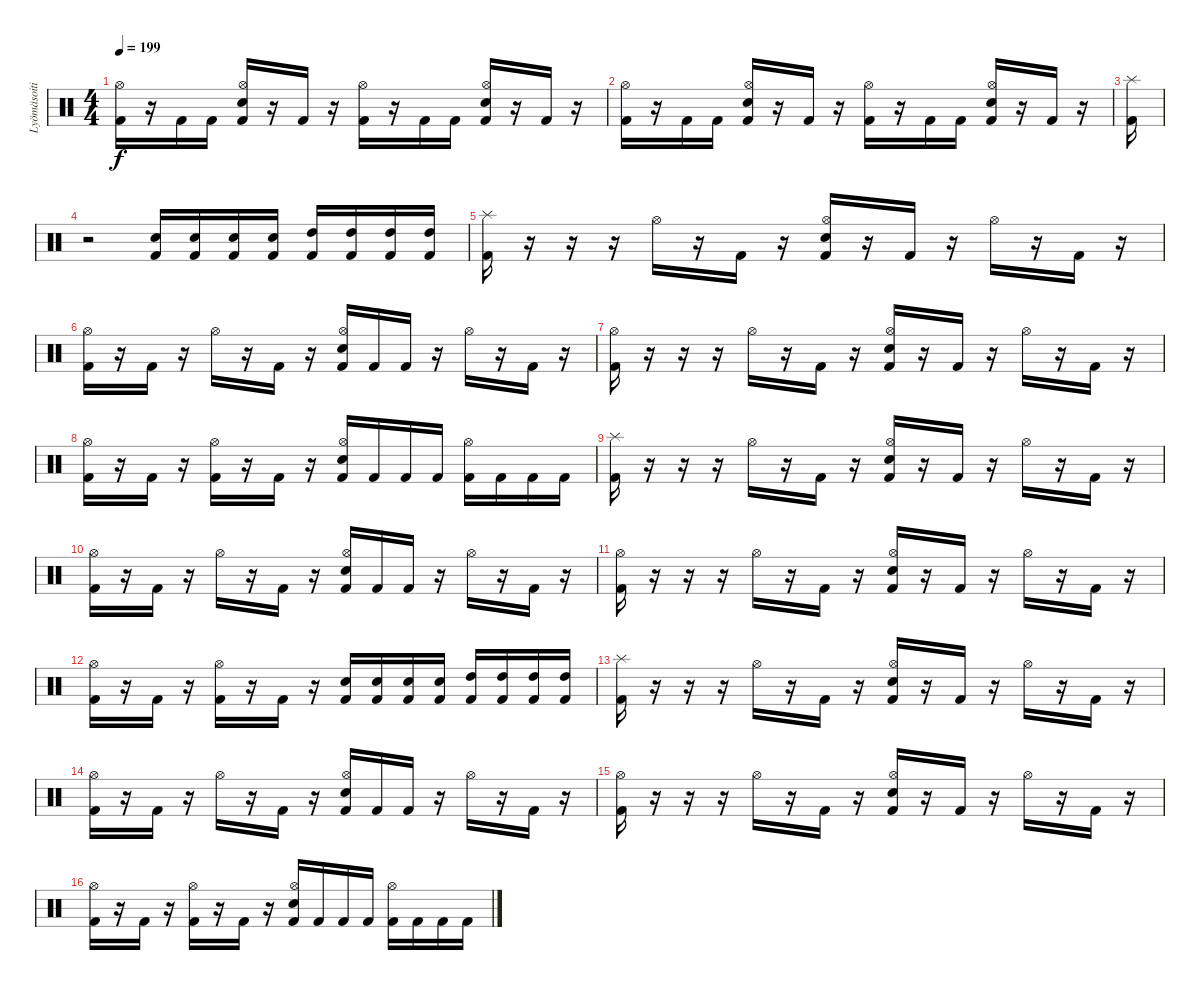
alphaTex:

\track ("Lyömäsoitin" "Lyömäsoiti") {instrument percussion}
\staff {score}
\articulation defaults
\ts (4 4)
\tempo 199
\clef neutral
\ks c
("Kick (hit) 2" "Hi-Hat (open)").16{dy f} r.16 "Kick (hit) 2".16 "Kick (hit) 2".16 ("Kick (hit) 2" "Hi-Hat (open)" "Snare (hit) 2").16 r.16 "Kick (hit) 2".16 r.16 ("Kick (hit) 2" "Hi-Hat (open)").16 r.16 "Kick (hit) 2".16 "Kick (hit) 2".16 ("Kick (hit) 2" "Hi-Hat (open)" "Snare (hit) 2").16 r.16 "Kick (hit) 2".16 r.16 |
("Kick (hit) 2" "Hi-Hat (open)").16 r.16 "Kick (hit) 2".16 "Kick (hit) 2".16 ("Kick (hit) 2" "Hi-Hat (open)" "Snare (hit) 2").16 r.16 "Kick (hit) 2".16 r.16 ("Kick (hit) 2" "Hi-Hat (open)").16 r.16 "Kick (hit) 2".16 "Kick (hit) 2".16 ("Kick (hit) 2" "Hi-Hat (open)" "Snare (hit) 2").16 r.16 "Kick (hit) 2".16 r.16 |
("Kick (hit) 2" "Splash (hit)").16 |
r.2 ("Kick (hit) 2" "Snare (hit) 2").16 ("Kick (hit) 2" "Snare (hit) 2").16 ("Kick (hit) 2" "Snare (hit) 2").16 ("Kick (hit) 2" "Snare (hit) 2").16 ("Kick (hit) 2" "High Tom (hit)").16 ("Kick (hit) 2" "High Tom (hit)").16 ("Kick (hit) 2" "High Tom (hit)").16 ("Kick (hit) 2" "High Tom (hit)").16 |
("Kick (hit) 2" "Splash (hit)").16 r.16 r.16 r.16 "Hi-Hat (open)".16 r.16 "Kick (hit) 2".16 r.16 ("Kick (hit) 2" "Hi-Hat (open)" "Snare (hit) 2").16 r.16 "Kick (hit) 2".16 r.16 "Hi-Hat (open)".16 r.16 "Kick (hit) 2".16 r.16 |
("Kick (hit) 2" "Hi-Hat (open)").16 r.16 "Kick (hit) 2".16 r.16 "Hi-Hat (open)".16 r.16 "Kick (hit) 2".16 r.16 ("Kick (hit) 2" "Hi-Hat (open)" "Snare (hit) 2").16 "Kick (hit) 2".16 "Kick (hit) 2".16 r.16 "Hi-Hat (open)".16 r.16 "Kick (hit) 2".16 r.16 |
("Kick (hit) 2" "Hi-Hat (open)").16 r.16 r.16 r.16 "Hi-Hat (open)".16 r.16 "Kick (hit) 2".16 r.16 ("Kick (hit) 2" "Hi-Hat (open)" "Snare (hit) 2").16 r.16 "Kick (hit) 2".16 r.16 "Hi-Hat (open)".16 r.16 "Kick (hit) 2".16 r.16 |
("Kick (hit) 2" "Hi-Hat (open)").16 r.16 "Kick (hit) 2".16 r.16 ("Kick (hit) 2" "Hi-Hat (open)").16 r.16 "Kick (hit) 2".16 r.16 ("Kick (hit) 2" "Hi-Hat (open)" "Snare (hit) 2").16 "Kick (hit) 2".16 "Kick (hit) 2".16 "Kick (hit) 2".16 ("Kick (hit) 2" "Hi-Hat (open)").16 "Kick (hit) 2".16 "Kick (hit) 2".16 "Kick (hit) 2".16 |
("Kick (hit) 2" "Splash (hit)").16 r.16 r.16 r.16 "Hi-Hat (open)".16 r.16 "Kick (hit) 2".16 r.16 ("Kick (hit) 2" "Hi-Hat (open)" "Snare (hit) 2").16 r.16 "Kick (hit) 2".16 r.16 "Hi-Hat (open)".16 r.16 "Kick (hit) 2".16 r.16 |
("Kick (hit) 2" "Hi-Hat (open)").16 r.16 "Kick (hit) 2".16 r.16 "Hi-Hat (open)".16 r.16 "Kick (hit) 2".16 r.16 ("Kick (hit) 2" "Hi-Hat (open)" "Snare (hit) 2").16 "Kick (hit) 2".16 "Kick (hit) 2".16 r.16 "Hi-Hat (open)".16 r.16 "Kick (hit) 2".16 r.16 |
("Kick (hit) 2" "Hi-Hat (open)").16 r.16 r.16 r.16 "Hi-Hat (open)".16 r.16 "Kick (hit) 2".16 r.16 ("Kick (hit) 2" "Hi-Hat (open)" "Snare (hit) 2").16 r.16 "Kick (hit) 2".16 r.16 "Hi-Hat (open)".16 r.16 "Kick (hit) 2".16 r.16 |
("Kick (hit) 2" "Hi-Hat (open)").16 r.16 "Kick (hit) 2".16 r.16 ("Kick (hit) 2" "Hi-Hat (open)").16 r.16 "Kick (hit) 2".16 r.16 ("Kick (hit) 2" "Snare (hit) 2").16 ("Kick (hit) 2" "Snare (hit) 2").16 ("Kick (hit) 2" "Snare (hit) 2").16 ("Kick (hit) 2" "Snare (hit) 2").16 ("Kick (hit) 2" "High Tom (hit)").16 ("Kick (hit) 2" "High Tom (hit)").16 ("Kick (hit) 2" "High Tom (hit)").16 ("Kick (hit) 2" "High Tom (hit)").16 |
("Kick (hit) 2" "Splash (hit)").16 r.16 r.16 r.16 "Hi-Hat (open)".16 r.16 "Kick (hit) 2".16 r.16 ("Kick (hit) 2" "Hi-Hat (open)" "Snare (hit) 2").16 r.16 "Kick (hit) 2".16 r.16 "Hi-Hat (open)".16 r.16 "Kick (hit) 2".16 r.16 |
("Kick (hit) 2" "Hi-Hat (open)").16 r.16 "Kick (hit) 2".16 r.16 "Hi-Hat (open)".16 r.16 "Kick (hit) 2".16 r.16 ("Kick (hit) 2" "Hi-Hat (open)" "Snare (hit) 2").16 "Kick (hit) 2".16 "Kick (hit) 2".16 r.16 "Hi-Hat (open)".16 r.16 "Kick (hit) 2".16 r.16 |
("Kick (hit) 2" "Hi-Hat (open)").16 r.16 r.16 r.16 "Hi-Hat (open)".16 r.16 "Kick (hit) 2".16 r.16 ("Kick (hit) 2" "Hi-Hat (open)" "Snare (hit) 2").16 r.16 "Kick (hit) 2".16 r.16 "Hi-Hat (open)".16 r.16 "Kick (hit) 2".16 r.16 |
("Kick (hit) 2" "Hi-Hat (open)").16 r.16 "Kick (hit) 2".16 r.16 ("Kick (hit) 2" "Hi-Hat (open)").16 r.16 "Kick (hit) 2".16 r.16 ("Kick (hit) 2" "Hi-Hat (open)" "Snare (hit) 2").16 "Kick (hit) 2".16 "Kick (hit) 2".16 "Kick (hit) 2".16 ("Kick (hit) 2" "Hi-Hat (open)").16 "Kick (hit) 2".16 "Kick (hit) 2".16 "Kick (hit) 2".16
